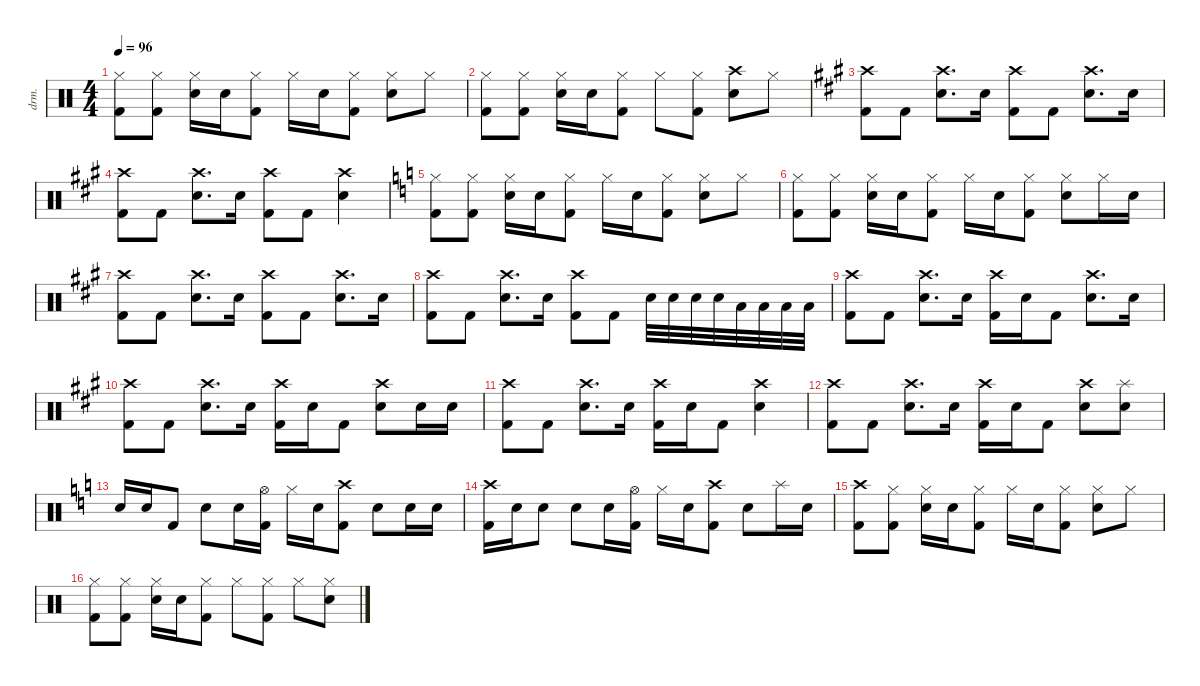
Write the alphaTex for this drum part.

\defaultSystemsLayout 4
\hideDynamics
\bracketExtendMode nobrackets
\track ("Percussion" "drm.") {instrument percussion}
\staff {score}
\articulation defaults
\ts (4 4)
\tempo 96
\clef neutral
\ks c
("Hi-Hat (closed)" "Kick (hit) 2").8{dy f} ("Hi-Hat (closed)" "Kick (hit) 2").8 ("Hi-Hat (closed)" "Snare (hit) 2").16 "Snare (hit) 2".16 ("Hi-Hat (closed)" "Kick (hit) 2").8 "Hi-Hat (closed)".16 "Snare (hit) 2".16 ("Hi-Hat (closed)" "Kick (hit) 2").8 ("Hi-Hat (closed)" "Snare (hit) 2").8 "Hi-Hat (closed)".8 |
("Hi-Hat (closed)" "Kick (hit) 2").8 ("Hi-Hat (closed)" "Kick (hit) 2").8 ("Hi-Hat (closed)" "Snare (hit) 2").16 "Snare (hit) 2".16 ("Hi-Hat (closed)" "Kick (hit) 2").8 "Hi-Hat (closed)".8 ("Hi-Hat (closed)" "Kick (hit) 2").8 ("Crash high (hit)" "Snare (hit) 2").8 "Hi-Hat (closed)".8 |
\ks a
("Crash high (hit)"{acc forcenatural} "Kick (hit) 2"{acc forcenatural}).8 "Kick (hit) 2"{acc forcenatural}.8 ("Crash high (hit)"{acc forcenatural} "Snare (hit) 2"{acc forcenatural}).8{d} "Snare (hit) 2"{acc forcenatural}.16 ("Crash high (hit)"{acc forcenatural} "Kick (hit) 2"{acc forcenatural}).8 "Kick (hit) 2"{acc forcenatural}.8 ("Crash high (hit)"{acc forcenatural} "Snare (hit) 2"{acc forcenatural}).8{d} "Snare (hit) 2"{acc forcenatural}.16 |
("Crash high (hit)"{acc forcenatural} "Kick (hit) 2"{acc forcenatural}).8 "Kick (hit) 2"{acc forcenatural}.8 ("Crash high (hit)"{acc forcenatural} "Snare (hit) 2"{acc forcenatural}).8{d} "Snare (hit) 2"{acc forcenatural}.16 ("Crash high (hit)"{acc forcenatural} "Kick (hit) 2"{acc forcenatural}).8 "Kick (hit) 2"{acc forcenatural}.8 ("Crash high (hit)"{acc forcenatural} "Snare (hit) 2"{acc forcenatural}).4 |
\ks c
("Hi-Hat (closed)" "Kick (hit) 2").8 ("Hi-Hat (closed)" "Kick (hit) 2").8 ("Hi-Hat (closed)" "Snare (hit) 2").16 "Snare (hit) 2".16 ("Hi-Hat (closed)" "Kick (hit) 2").8 "Hi-Hat (closed)".16 "Snare (hit) 2".16 ("Hi-Hat (closed)" "Kick (hit) 2").8 ("Hi-Hat (closed)" "Snare (hit) 2").8 "Hi-Hat (closed)".8 |
("Hi-Hat (closed)" "Kick (hit) 2").8 ("Hi-Hat (closed)" "Kick (hit) 2").8 ("Hi-Hat (closed)" "Snare (hit) 2").16 "Snare (hit) 2".16 ("Hi-Hat (closed)" "Kick (hit) 2").8 "Hi-Hat (closed)".16 "Snare (hit) 2".16 ("Hi-Hat (closed)" "Kick (hit) 2").8 ("Hi-Hat (closed)" "Snare (hit) 2").8 "Hi-Hat (closed)".16 "Snare (hit) 2".16 |
\ks a
("Crash high (hit)"{acc forcenatural} "Kick (hit) 2"{acc forcenatural}).8 "Kick (hit) 2"{acc forcenatural}.8 ("Crash high (hit)"{acc forcenatural} "Snare (hit) 2"{acc forcenatural}).8{d} "Snare (hit) 2"{acc forcenatural}.16 ("Crash high (hit)"{acc forcenatural} "Kick (hit) 2"{acc forcenatural}).8 "Kick (hit) 2"{acc forcenatural}.8 ("Crash high (hit)"{acc forcenatural} "Snare (hit) 2"{acc forcenatural}).8{d} "Snare (hit) 2"{acc forcenatural}.16 |
("Crash high (hit)"{acc forcenatural} "Kick (hit) 2"{acc forcenatural}).8 "Kick (hit) 2"{acc forcenatural}.8 ("Crash high (hit)"{acc forcenatural} "Snare (hit) 2"{acc forcenatural}).8{d} "Snare (hit) 2"{acc forcenatural}.16 ("Crash high (hit)"{acc forcenatural} "Kick (hit) 2"{acc forcenatural}).8 "Kick (hit) 2"{acc forcenatural}.8 "Snare (hit) 2"{acc forcenatural}.32 "Snare (hit) 2"{acc forcenatural}.32 "Snare (hit) 2"{acc forcenatural}.32 "Snare (hit) 2"{acc forcenatural}.32 "Low Tom (hit)"{acc forcenatural}.32 "Low Tom (hit)"{acc forcenatural}.32 "Low Tom (hit)"{acc forcenatural}.32 "Low Tom (hit)"{acc forcenatural}.32 |
("Crash high (hit)"{acc forcenatural} "Kick (hit) 2"{acc forcenatural}).8 "Kick (hit) 2"{acc forcenatural}.8 ("Crash high (hit)"{acc forcenatural} "Snare (hit) 2"{acc forcenatural}).8{d} "Snare (hit) 2"{acc forcenatural}.16 ("Crash high (hit)"{acc forcenatural} "Kick (hit) 2"{acc forcenatural}).16 "Snare (hit) 2"{acc forcenatural}.16 "Kick (hit) 2"{acc forcenatural}.8 ("Crash high (hit)"{acc forcenatural} "Snare (hit) 2"{acc forcenatural}).8{d} "Snare (hit) 2"{acc forcenatural}.16 |
("Crash high (hit)"{acc forcenatural} "Kick (hit) 2"{acc forcenatural}).8 "Kick (hit) 2"{acc forcenatural}.8 ("Crash high (hit)"{acc forcenatural} "Snare (hit) 2"{acc forcenatural}).8{d} "Snare (hit) 2"{acc forcenatural}.16 ("Crash high (hit)"{acc forcenatural} "Kick (hit) 2"{acc forcenatural}).16 "Snare (hit) 2"{acc forcenatural}.16 "Kick (hit) 2"{acc forcenatural}.8 ("Crash high (hit)"{acc forcenatural} "Snare (hit) 2"{acc forcenatural}).8 "Snare (hit) 2"{acc forcenatural}.16 "Snare (hit) 2"{acc forcenatural}.16 |
("Crash high (hit)"{acc forcenatural} "Kick (hit) 2"{acc forcenatural}).8 "Kick (hit) 2"{acc forcenatural}.8 ("Crash high (hit)"{acc forcenatural} "Snare (hit) 2"{acc forcenatural}).8{d} "Snare (hit) 2"{acc forcenatural}.16 ("Crash high (hit)"{acc forcenatural} "Kick (hit) 2"{acc forcenatural}).16 "Snare (hit) 2"{acc forcenatural}.16 "Kick (hit) 2"{acc forcenatural}.8 ("Crash high (hit)"{acc forcenatural} "Snare (hit) 2"{acc forcenatural}).4 |
("Crash high (hit)"{acc forcenatural} "Kick (hit) 2"{acc forcenatural}).8 "Kick (hit) 2"{acc forcenatural}.8 ("Crash high (hit)"{acc forcenatural} "Snare (hit) 2"{acc forcenatural}).8{d} "Snare (hit) 2"{acc forcenatural}.16 ("Crash high (hit)"{acc forcenatural} "Kick (hit) 2"{acc forcenatural}).16 "Snare (hit) 2"{acc forcenatural}.16 "Kick (hit) 2"{acc forcenatural}.8 ("Crash high (hit)"{acc forcenatural} "Snare (hit) 2"{acc forcenatural}).8 ("Splash (hit)"{acc forcenatural} "Snare (hit) 2"{acc forcenatural}).8{dy mf} |
\ks c "Snare (hit) 2".16{dy f} "Snare (hit) 2".16 "Kick (hit) 2".8 "Snare (hit) 2".8 "Snare (hit) 2".16
("Hi-Hat (open)" "Kick (hit) 2").16 "Hi-Hat (closed)".16 "Snare (hit) 2".16 ("Crash high (hit)" "Kick (hit) 2").8 "Snare (hit) 2".8 "Snare (hit) 2".16 "Snare (hit) 2".16 |
("Crash high (hit)" "Kick (hit) 2").16 "Snare (hit) 2".16 "Snare (hit) 2".8 "Snare (hit) 2".8 "Snare (hit) 2".16 ("Hi-Hat (open)" "Kick (hit) 2").16 "Hi-Hat (closed)".16 "Snare (hit) 2".16 ("Crash high (hit)" "Kick (hit) 2").8 "Snare (hit) 2".8 "Splash (hit)".16{dy mf} "Snare (hit) 2".16{dy f} |
("Crash high (hit)" "Kick (hit) 2").8 ("Hi-Hat (closed)" "Kick (hit) 2").8 ("Hi-Hat (closed)" "Snare (hit) 2").16 "Snare (hit) 2".16 ("Hi-Hat (closed)" "Kick (hit) 2").8 "Hi-Hat (closed)".16 "Snare (hit) 2".16 ("Hi-Hat (closed)" "Kick (hit) 2").8 ("Hi-Hat (closed)" "Snare (hit) 2").8 "Hi-Hat (closed)".8 |
("Hi-Hat (closed)" "Kick (hit) 2").8 ("Hi-Hat (closed)" "Kick (hit) 2").8 ("Hi-Hat (closed)" "Snare (hit) 2").16 "Snare (hit) 2".16 ("Hi-Hat (closed)" "Kick (hit) 2").8 "Hi-Hat (closed)".8 ("Hi-Hat (closed)" "Kick (hit) 2").8 "Hi-Hat (closed)".8 ("Hi-Hat (closed)" "Snare (hit) 2").8
